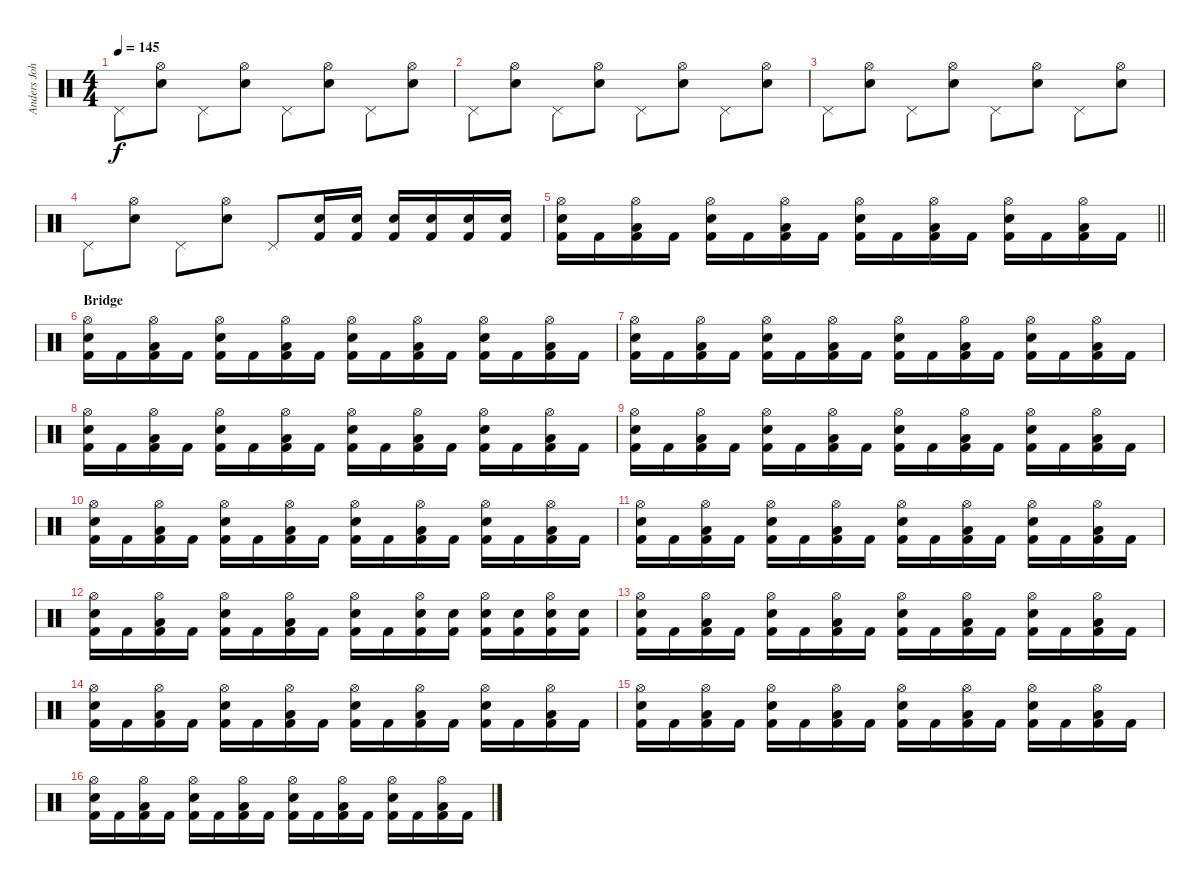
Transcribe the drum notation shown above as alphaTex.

\track ("Anders Johansson (Drums)" "Anders Joh") {instrument percussion}
\staff {score}
\articulation defaults
\ts (4 4)
\tempo 145
\clef neutral
\ks c "Pedal Hi-Hat (hit)".8{dy f}
("Hi-Hat (open)" "Electric Snare (hit)").8 "Pedal Hi-Hat (hit)".8 ("Hi-Hat (open)" "Electric Snare (hit)").8 "Pedal Hi-Hat (hit)".8 ("Hi-Hat (open)" "Electric Snare (hit)").8 "Pedal Hi-Hat (hit)".8 ("Hi-Hat (open)" "Electric Snare (hit)").8 |
"Pedal Hi-Hat (hit)".8 ("Hi-Hat (open)" "Electric Snare (hit)").8 "Pedal Hi-Hat (hit)".8 ("Hi-Hat (open)" "Electric Snare (hit)").8 "Pedal Hi-Hat (hit)".8 ("Hi-Hat (open)" "Electric Snare (hit)").8 "Pedal Hi-Hat (hit)".8 ("Hi-Hat (open)" "Electric Snare (hit)").8 |
"Pedal Hi-Hat (hit)".8 ("Hi-Hat (open)" "Electric Snare (hit)").8 "Pedal Hi-Hat (hit)".8 ("Hi-Hat (open)" "Electric Snare (hit)").8 "Pedal Hi-Hat (hit)".8 ("Hi-Hat (open)" "Electric Snare (hit)").8 "Pedal Hi-Hat (hit)".8 ("Hi-Hat (open)" "Electric Snare (hit)").8 |
"Pedal Hi-Hat (hit)".8 ("Hi-Hat (open)" "Electric Snare (hit)").8 "Pedal Hi-Hat (hit)".8 ("Hi-Hat (open)" "Electric Snare (hit)").8 "Pedal Hi-Hat (hit)".8 ("Kick (hit) 2" "Electric Snare (hit)").16 ("Kick (hit) 2" "Electric Snare (hit)").16 ("Kick (hit) 2" "Electric Snare (hit)").16 ("Kick (hit) 2" "Electric Snare (hit)").16 ("Kick (hit) 2" "Electric Snare (hit)").16 ("Kick (hit) 2" "Electric Snare (hit)").16 |
\barLineRight lightlight
("Kick (hit) 2" "Electric Snare (hit)" "Hi-Hat (open)").16 "Kick (hit) 2".16 ("Kick (hit) 2" "Low Tom (hit)" "Hi-Hat (open)").16 "Kick (hit) 2".16 ("Kick (hit) 2" "Electric Snare (hit)" "Hi-Hat (open)").16 "Kick (hit) 2".16 ("Kick (hit) 2" "Low Tom (hit)" "Hi-Hat (open)").16 "Kick (hit) 2".16 ("Kick (hit) 2" "Electric Snare (hit)" "Hi-Hat (open)").16 "Kick (hit) 2".16 ("Kick (hit) 2" "Low Tom (hit)" "Hi-Hat (open)").16 "Kick (hit) 2".16 ("Kick (hit) 2" "Electric Snare (hit)" "Hi-Hat (open)").16 "Kick (hit) 2".16 ("Kick (hit) 2" "Low Tom (hit)" "Hi-Hat (open)").16 "Kick (hit) 2".16 |
\section ("" "Bridge")
("Kick (hit) 2" "Electric Snare (hit)" "Hi-Hat (open)").16 "Kick (hit) 2".16 ("Kick (hit) 2" "Low Tom (hit)" "Hi-Hat (open)").16 "Kick (hit) 2".16 ("Kick (hit) 2" "Electric Snare (hit)" "Hi-Hat (open)").16 "Kick (hit) 2".16 ("Kick (hit) 2" "Low Tom (hit)" "Hi-Hat (open)").16 "Kick (hit) 2".16 ("Kick (hit) 2" "Electric Snare (hit)" "Hi-Hat (open)").16 "Kick (hit) 2".16 ("Kick (hit) 2" "Low Tom (hit)" "Hi-Hat (open)").16 "Kick (hit) 2".16 ("Kick (hit) 2" "Electric Snare (hit)" "Hi-Hat (open)").16 "Kick (hit) 2".16 ("Kick (hit) 2" "Low Tom (hit)" "Hi-Hat (open)").16 "Kick (hit) 2".16 |
("Kick (hit) 2" "Electric Snare (hit)" "Hi-Hat (open)").16 "Kick (hit) 2".16 ("Kick (hit) 2" "Low Tom (hit)" "Hi-Hat (open)").16 "Kick (hit) 2".16 ("Kick (hit) 2" "Electric Snare (hit)" "Hi-Hat (open)").16 "Kick (hit) 2".16 ("Kick (hit) 2" "Low Tom (hit)" "Hi-Hat (open)").16 "Kick (hit) 2".16 ("Kick (hit) 2" "Electric Snare (hit)" "Hi-Hat (open)").16 "Kick (hit) 2".16 ("Kick (hit) 2" "Low Tom (hit)" "Hi-Hat (open)").16 "Kick (hit) 2".16 ("Kick (hit) 2" "Electric Snare (hit)" "Hi-Hat (open)").16 "Kick (hit) 2".16 ("Kick (hit) 2" "Low Tom (hit)" "Hi-Hat (open)").16 "Kick (hit) 2".16 |
("Kick (hit) 2" "Electric Snare (hit)" "Hi-Hat (open)").16 "Kick (hit) 2".16 ("Kick (hit) 2" "Low Tom (hit)" "Hi-Hat (open)").16 "Kick (hit) 2".16 ("Kick (hit) 2" "Electric Snare (hit)" "Hi-Hat (open)").16 "Kick (hit) 2".16 ("Kick (hit) 2" "Low Tom (hit)" "Hi-Hat (open)").16 "Kick (hit) 2".16 ("Kick (hit) 2" "Electric Snare (hit)" "Hi-Hat (open)").16 "Kick (hit) 2".16 ("Kick (hit) 2" "Low Tom (hit)" "Hi-Hat (open)").16 "Kick (hit) 2".16 ("Kick (hit) 2" "Electric Snare (hit)" "Hi-Hat (open)").16 "Kick (hit) 2".16 ("Kick (hit) 2" "Low Tom (hit)" "Hi-Hat (open)").16 "Kick (hit) 2".16 |
("Kick (hit) 2" "Electric Snare (hit)" "Hi-Hat (open)").16 "Kick (hit) 2".16 ("Kick (hit) 2" "Low Tom (hit)" "Hi-Hat (open)").16 "Kick (hit) 2".16 ("Kick (hit) 2" "Electric Snare (hit)" "Hi-Hat (open)").16 "Kick (hit) 2".16 ("Kick (hit) 2" "Low Tom (hit)" "Hi-Hat (open)").16 "Kick (hit) 2".16 ("Kick (hit) 2" "Electric Snare (hit)" "Hi-Hat (open)").16 "Kick (hit) 2".16 ("Kick (hit) 2" "Low Tom (hit)" "Hi-Hat (open)").16 "Kick (hit) 2".16 ("Kick (hit) 2" "Electric Snare (hit)" "Hi-Hat (open)").16 "Kick (hit) 2".16 ("Kick (hit) 2" "Low Tom (hit)" "Hi-Hat (open)").16 "Kick (hit) 2".16 |
("Kick (hit) 2" "Electric Snare (hit)" "Hi-Hat (open)").16 "Kick (hit) 2".16 ("Kick (hit) 2" "Low Tom (hit)" "Hi-Hat (open)").16 "Kick (hit) 2".16 ("Kick (hit) 2" "Electric Snare (hit)" "Hi-Hat (open)").16 "Kick (hit) 2".16 ("Kick (hit) 2" "Low Tom (hit)" "Hi-Hat (open)").16 "Kick (hit) 2".16 ("Kick (hit) 2" "Electric Snare (hit)" "Hi-Hat (open)").16 "Kick (hit) 2".16 ("Kick (hit) 2" "Low Tom (hit)" "Hi-Hat (open)").16 "Kick (hit) 2".16 ("Kick (hit) 2" "Electric Snare (hit)" "Hi-Hat (open)").16 "Kick (hit) 2".16 ("Kick (hit) 2" "Low Tom (hit)" "Hi-Hat (open)").16 "Kick (hit) 2".16 |
("Kick (hit) 2" "Electric Snare (hit)" "Hi-Hat (open)").16 "Kick (hit) 2".16 ("Kick (hit) 2" "Low Tom (hit)" "Hi-Hat (open)").16 "Kick (hit) 2".16 ("Kick (hit) 2" "Electric Snare (hit)" "Hi-Hat (open)").16 "Kick (hit) 2".16 ("Kick (hit) 2" "Low Tom (hit)" "Hi-Hat (open)").16 "Kick (hit) 2".16 ("Kick (hit) 2" "Electric Snare (hit)" "Hi-Hat (open)").16 "Kick (hit) 2".16 ("Kick (hit) 2" "Low Tom (hit)" "Hi-Hat (open)").16 "Kick (hit) 2".16 ("Kick (hit) 2" "Electric Snare (hit)" "Hi-Hat (open)").16 "Kick (hit) 2".16 ("Kick (hit) 2" "Low Tom (hit)" "Hi-Hat (open)").16 "Kick (hit) 2".16 |
("Kick (hit) 2" "Electric Snare (hit)" "Hi-Hat (open)").16 "Kick (hit) 2".16 ("Kick (hit) 2" "Low Tom (hit)" "Hi-Hat (open)").16 "Kick (hit) 2".16 ("Kick (hit) 2" "Electric Snare (hit)" "Hi-Hat (open)").16 "Kick (hit) 2".16 ("Kick (hit) 2" "Low Tom (hit)" "Hi-Hat (open)").16 "Kick (hit) 2".16 ("Kick (hit) 2" "Electric Snare (hit)" "Hi-Hat (open)").16 "Kick (hit) 2".16 ("Kick (hit) 2" "Electric Snare (hit)" "Hi-Hat (open)").16 ("Kick (hit) 2" "Electric Snare (hit)").16 ("Kick (hit) 2" "Electric Snare (hit)" "Hi-Hat (open)").16 ("Kick (hit) 2" "Electric Snare (hit)").16 ("Kick (hit) 2" "Electric Snare (hit)" "Hi-Hat (open)").16 ("Kick (hit) 2" "Electric Snare (hit)").16 |
("Kick (hit) 2" "Electric Snare (hit)" "Hi-Hat (open)").16 "Kick (hit) 2".16 ("Kick (hit) 2" "Low Tom (hit)" "Hi-Hat (open)").16 "Kick (hit) 2".16 ("Kick (hit) 2" "Electric Snare (hit)" "Hi-Hat (open)").16 "Kick (hit) 2".16 ("Kick (hit) 2" "Low Tom (hit)" "Hi-Hat (open)").16 "Kick (hit) 2".16 ("Kick (hit) 2" "Electric Snare (hit)" "Hi-Hat (open)").16 "Kick (hit) 2".16 ("Kick (hit) 2" "Low Tom (hit)" "Hi-Hat (open)").16 "Kick (hit) 2".16 ("Kick (hit) 2" "Electric Snare (hit)" "Hi-Hat (open)").16 "Kick (hit) 2".16 ("Kick (hit) 2" "Low Tom (hit)" "Hi-Hat (open)").16 "Kick (hit) 2".16 |
("Kick (hit) 2" "Electric Snare (hit)" "Hi-Hat (open)").16 "Kick (hit) 2".16 ("Kick (hit) 2" "Low Tom (hit)" "Hi-Hat (open)").16 "Kick (hit) 2".16 ("Kick (hit) 2" "Electric Snare (hit)" "Hi-Hat (open)").16 "Kick (hit) 2".16 ("Kick (hit) 2" "Low Tom (hit)" "Hi-Hat (open)").16 "Kick (hit) 2".16 ("Kick (hit) 2" "Electric Snare (hit)" "Hi-Hat (open)").16 "Kick (hit) 2".16 ("Kick (hit) 2" "Low Tom (hit)" "Hi-Hat (open)").16 "Kick (hit) 2".16 ("Kick (hit) 2" "Electric Snare (hit)" "Hi-Hat (open)").16 "Kick (hit) 2".16 ("Kick (hit) 2" "Low Tom (hit)" "Hi-Hat (open)").16 "Kick (hit) 2".16 |
("Kick (hit) 2" "Electric Snare (hit)" "Hi-Hat (open)").16 "Kick (hit) 2".16 ("Kick (hit) 2" "Low Tom (hit)" "Hi-Hat (open)").16 "Kick (hit) 2".16 ("Kick (hit) 2" "Electric Snare (hit)" "Hi-Hat (open)").16 "Kick (hit) 2".16 ("Kick (hit) 2" "Low Tom (hit)" "Hi-Hat (open)").16 "Kick (hit) 2".16 ("Kick (hit) 2" "Electric Snare (hit)" "Hi-Hat (open)").16 "Kick (hit) 2".16 ("Kick (hit) 2" "Low Tom (hit)" "Hi-Hat (open)").16 "Kick (hit) 2".16 ("Kick (hit) 2" "Electric Snare (hit)" "Hi-Hat (open)").16 "Kick (hit) 2".16 ("Kick (hit) 2" "Low Tom (hit)" "Hi-Hat (open)").16 "Kick (hit) 2".16 |
("Kick (hit) 2" "Electric Snare (hit)" "Hi-Hat (open)").16 "Kick (hit) 2".16 ("Kick (hit) 2" "Low Tom (hit)" "Hi-Hat (open)").16 "Kick (hit) 2".16 ("Kick (hit) 2" "Electric Snare (hit)" "Hi-Hat (open)").16 "Kick (hit) 2".16 ("Kick (hit) 2" "Low Tom (hit)" "Hi-Hat (open)").16 "Kick (hit) 2".16 ("Kick (hit) 2" "Electric Snare (hit)" "Hi-Hat (open)").16 "Kick (hit) 2".16 ("Kick (hit) 2" "Low Tom (hit)" "Hi-Hat (open)").16 "Kick (hit) 2".16 ("Kick (hit) 2" "Electric Snare (hit)" "Hi-Hat (open)").16 "Kick (hit) 2".16 ("Kick (hit) 2" "Low Tom (hit)" "Hi-Hat (open)").16 "Kick (hit) 2".16
